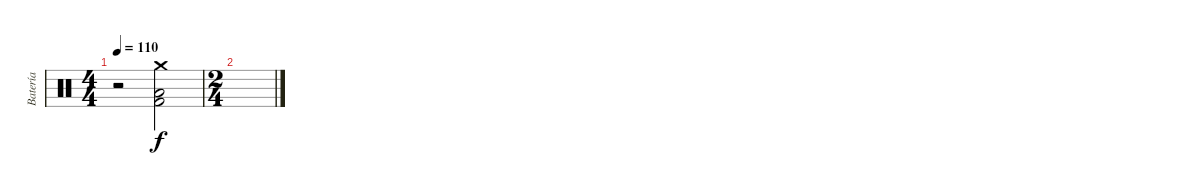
\track ("Batería" "Batería") {instrument percussion}
\staff {score}
\articulation defaults
\ts (4 4)
\tempo 110
\clef neutral
\ks c
r.2{dy f} ("Crash medium (hit)" "Low Floor Tom (hit)" "Kick (hit) 2").2 |
\ts (2 4)
